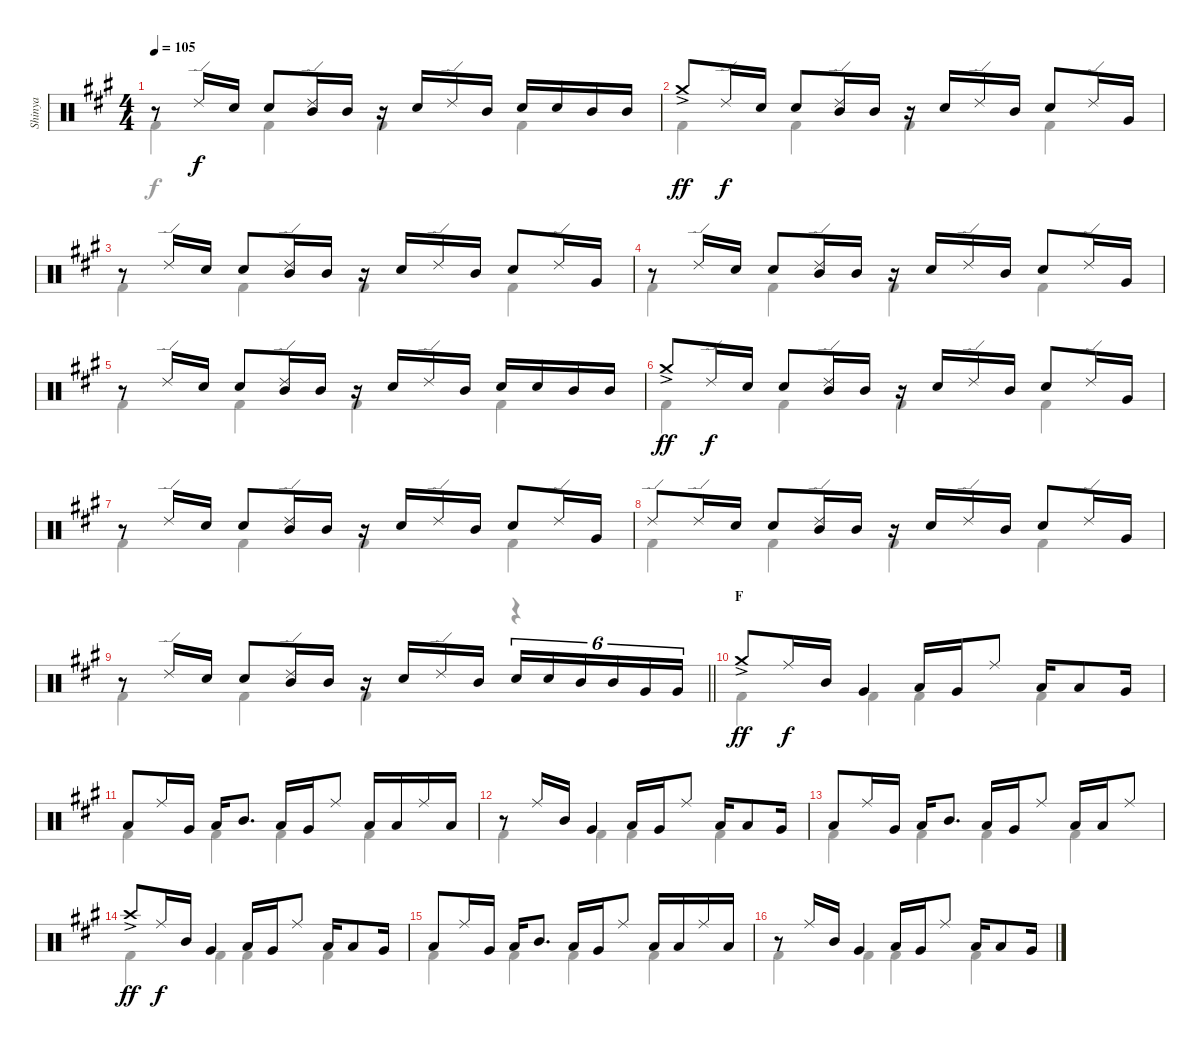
\track ("Shinya" "Shinya") {instrument percussion}
\staff {score}
\articulation defaults
\voice
\ts (4 4)
\tempo 105
\clef neutral
\ks f#minor
r.8{dy f} "Ride (edge) 2".16 "Snare (hit) 2".16 "Snare (hit) 2".8 ("Ride (edge) 2" "Mid Tom (hit)").16 "Mid Tom (hit)".16 r.16 "Snare (hit) 2".16 "Ride (edge) 2".16 "Mid Tom (hit)".16 "Snare (hit) 2".16 "Snare (hit) 2".16 "Mid Tom (hit)".16 "Mid Tom (hit)".16 |
"Crash medium (hit)"{ac}.8{dy ff} "Ride (edge) 2".16{dy f} "Snare (hit) 2".16 "Snare (hit) 2".8 ("Ride (edge) 2" "Mid Tom (hit)").16 "Mid Tom (hit)".16 r.16 "Snare (hit) 2".16 "Ride (edge) 2".16 "Mid Tom (hit)".16 "Snare (hit) 2".8 "Ride (edge) 2".16 "Very Low Tom (hit)".16 |
r.8 "Ride (edge) 2".16 "Snare (hit) 2".16 "Snare (hit) 2".8 ("Ride (edge) 2" "Mid Tom (hit)").16 "Mid Tom (hit)".16 r.16 "Snare (hit) 2".16 "Ride (edge) 2".16 "Mid Tom (hit)".16 "Snare (hit) 2".8 "Ride (edge) 2".16 "Very Low Tom (hit)".16 |
r.8 "Ride (edge) 2".16 "Snare (hit) 2".16 "Snare (hit) 2".8 ("Ride (edge) 2" "Mid Tom (hit)").16 "Mid Tom (hit)".16 r.16 "Snare (hit) 2".16 "Ride (edge) 2".16 "Mid Tom (hit)".16 "Snare (hit) 2".8 "Ride (edge) 2".16 "Very Low Tom (hit)".16 |
r.8 "Ride (edge) 2".16 "Snare (hit) 2".16 "Snare (hit) 2".8 ("Ride (edge) 2" "Mid Tom (hit)").16 "Mid Tom (hit)".16 r.16 "Snare (hit) 2".16 "Ride (edge) 2".16 "Mid Tom (hit)".16 "Snare (hit) 2".16 "Snare (hit) 2".16 "Mid Tom (hit)".16 "Mid Tom (hit)".16 |
"Crash medium (hit)"{ac}.8{dy ff} "Ride (edge) 2".16{dy f} "Snare (hit) 2".16 "Snare (hit) 2".8 ("Ride (edge) 2" "Mid Tom (hit)").16 "Mid Tom (hit)".16 r.16 "Snare (hit) 2".16 "Ride (edge) 2".16 "Mid Tom (hit)".16 "Snare (hit) 2".8 "Ride (edge) 2".16 "Very Low Tom (hit)".16 |
r.8 "Ride (edge) 2".16 "Snare (hit) 2".16 "Snare (hit) 2".8 ("Ride (edge) 2" "Mid Tom (hit)").16 "Mid Tom (hit)".16 r.16 "Snare (hit) 2".16 "Ride (edge) 2".16 "Mid Tom (hit)".16 "Snare (hit) 2".8 "Ride (edge) 2".16 "Very Low Tom (hit)".16 |
"Ride (edge) 2".8 "Ride (edge) 2".16 "Snare (hit) 2".16 "Snare (hit) 2".8 ("Ride (edge) 2" "Mid Tom (hit)").16 "Mid Tom (hit)".16 r.16 "Snare (hit) 2".16 "Ride (edge) 2".16 "Mid Tom (hit)".16 "Snare (hit) 2".8 "Ride (edge) 2".16 "Very Low Tom (hit)".16 |
\barLineRight lightlight
r.8 "Ride (edge) 2".16 "Snare (hit) 2".16 "Snare (hit) 2".8 ("Ride (edge) 2" "Mid Tom (hit)").16 "Mid Tom (hit)".16 r.16 "Snare (hit) 2".16 "Ride (edge) 2".16 "Mid Tom (hit)".16 "Snare (hit) 2".16{tu (6 4)} "Snare (hit) 2".16{tu (6 4)} "Mid Tom (hit)".16{tu (6 4)} "Mid Tom (hit)".16{tu (6 4)} "Very Low Tom (hit)".16{tu (6 4)} "Very Low Tom (hit)".16{tu (6 4)} |
\section ("" "F")
"Crash medium (hit)"{ac}.8{dy ff} "Ride (middle)".16{dy f} "Mid Tom (hit)".16 "Very Low Tom (hit)".4 "Low Floor Tom (hit)".16 "Very Low Tom (hit)".16 "Ride (middle)".8 "Low Floor Tom (hit)".16 "Low Floor Tom (hit)".8 "Very Low Tom (hit)".16 |
"Low Floor Tom (hit)".8 "Ride (middle)".16 "Very Low Tom (hit)".16 "Low Floor Tom (hit)".16 "Mid Tom (hit)".8{d} "Low Floor Tom (hit)".16 "Very Low Tom (hit)".16 "Ride (middle)".8 "Low Floor Tom (hit)".16 "Low Floor Tom (hit)".16 "Ride (middle)".16 "Low Floor Tom (hit)".16 |
r.8 "Ride (middle)".16 "Mid Tom (hit)".16 "Very Low Tom (hit)".4 "Low Floor Tom (hit)".16 "Very Low Tom (hit)".16 "Ride (middle)".8 "Low Floor Tom (hit)".16 "Low Floor Tom (hit)".8 "Very Low Tom (hit)".16 |
"Low Floor Tom (hit)".8 "Ride (middle)".16 "Very Low Tom (hit)".16 "Low Floor Tom (hit)".16 "Mid Tom (hit)".8{d} "Low Floor Tom (hit)".16 "Very Low Tom (hit)".16 "Ride (middle)".8 "Low Floor Tom (hit)".16 "Low Floor Tom (hit)".16 "Ride (middle)".8 |
"Crash high (hit)"{ac}.8{dy ff} "Ride (middle)".16{dy f} "Mid Tom (hit)".16 "Very Low Tom (hit)".4 "Low Floor Tom (hit)".16 "Very Low Tom (hit)".16 "Ride (middle)".8 "Low Floor Tom (hit)".16 "Low Floor Tom (hit)".8 "Very Low Tom (hit)".16 |
"Low Floor Tom (hit)".8 "Ride (middle)".16 "Very Low Tom (hit)".16 "Low Floor Tom (hit)".16 "Mid Tom (hit)".8{d} "Low Floor Tom (hit)".16 "Very Low Tom (hit)".16 "Ride (middle)".8 "Low Floor Tom (hit)".16 "Low Floor Tom (hit)".16 "Ride (middle)".16 "Low Floor Tom (hit)".16 |
r.8 "Ride (middle)".16 "Mid Tom (hit)".16 "Very Low Tom (hit)".4 "Low Floor Tom (hit)".16 "Very Low Tom (hit)".16 "Ride (middle)".8 "Low Floor Tom (hit)".16 "Low Floor Tom (hit)".8 "Very Low Tom (hit)".16
\voice
\clef neutral
\ottava regular
\simile none
\ks f#minor "Kick (hit) 2".4{dy f} "Kick (hit) 2".4 "Kick (hit) 2".4 "Kick (hit) 2".4
|
"Kick (hit) 2".4 "Kick (hit) 2".4 "Kick (hit) 2".4 "Kick (hit) 2".4 |
"Kick (hit) 2".4 "Kick (hit) 2".4 "Kick (hit) 2".4 "Kick (hit) 2".4 |
"Kick (hit) 2".4 "Kick (hit) 2".4 "Kick (hit) 2".4 "Kick (hit) 2".4 |
"Kick (hit) 2".4 "Kick (hit) 2".4 "Kick (hit) 2".4 "Kick (hit) 2".4 |
"Kick (hit) 2".4 "Kick (hit) 2".4 "Kick (hit) 2".4 "Kick (hit) 2".4 |
"Kick (hit) 2".4 "Kick (hit) 2".4 "Kick (hit) 2".4 "Kick (hit) 2".4 |
"Kick (hit) 2".4 "Kick (hit) 2".4 "Kick (hit) 2".4 "Kick (hit) 2".4 |
\barLineRight lightlight "Kick (hit) 2".4 "Kick (hit) 2".4 "Kick (hit) 2".4
r.4 |
"Kick (hit) 2".4 "Kick (hit) 2".4 "Kick (hit) 2".4 "Kick (hit) 2".4 |
"Kick (hit) 2".4 "Kick (hit) 2".4 "Kick (hit) 2".4 "Kick (hit) 2".4 |
"Kick (hit) 2".4 "Kick (hit) 2".4 "Kick (hit) 2".4 "Kick (hit) 2".4 |
"Kick (hit) 2".4 "Kick (hit) 2".4 "Kick (hit) 2".4 "Kick (hit) 2".4 |
"Kick (hit) 2".4 "Kick (hit) 2".4 "Kick (hit) 2".4 "Kick (hit) 2".4 |
"Kick (hit) 2".4 "Kick (hit) 2".4 "Kick (hit) 2".4 "Kick (hit) 2".4 |
"Kick (hit) 2".4 "Kick (hit) 2".4 "Kick (hit) 2".4 "Kick (hit) 2".4
